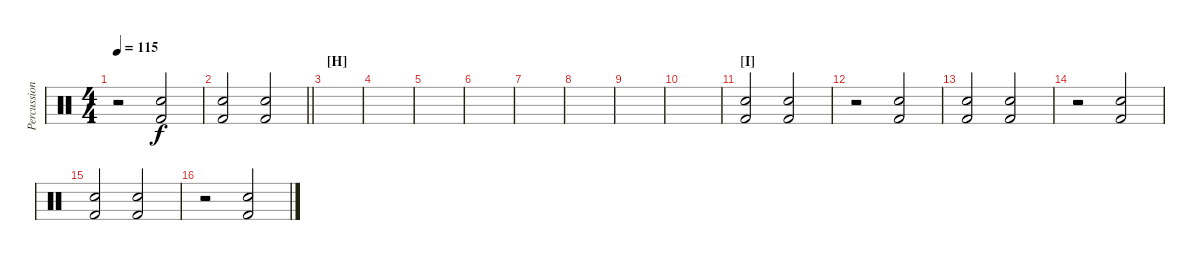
\track ("Percussions" "Percussion") {instrument percussion}
\staff {score}
\articulation defaults
\ts (4 4)
\tempo 115
\clef neutral
\ks c
r.2{dy f} ("Electric Snare (hit)" "Kick (hit) 2").2 |
\barLineRight lightlight
("Electric Snare (hit)" "Kick (hit) 2").2 ("Electric Snare (hit)" "Kick (hit) 2").2 |
\section ("" "[H]")
|
|
|
|
|
|
|
|
\section ("" "[I]")
("Electric Snare (hit)" "Kick (hit) 2").2 ("Electric Snare (hit)" "Kick (hit) 2").2 |
r.2 ("Electric Snare (hit)" "Kick (hit) 2").2 |
("Electric Snare (hit)" "Kick (hit) 2").2 ("Electric Snare (hit)" "Kick (hit) 2").2 |
r.2 ("Electric Snare (hit)" "Kick (hit) 2").2 |
("Electric Snare (hit)" "Kick (hit) 2").2 ("Electric Snare (hit)" "Kick (hit) 2").2 |
r.2 ("Electric Snare (hit)" "Kick (hit) 2").2
